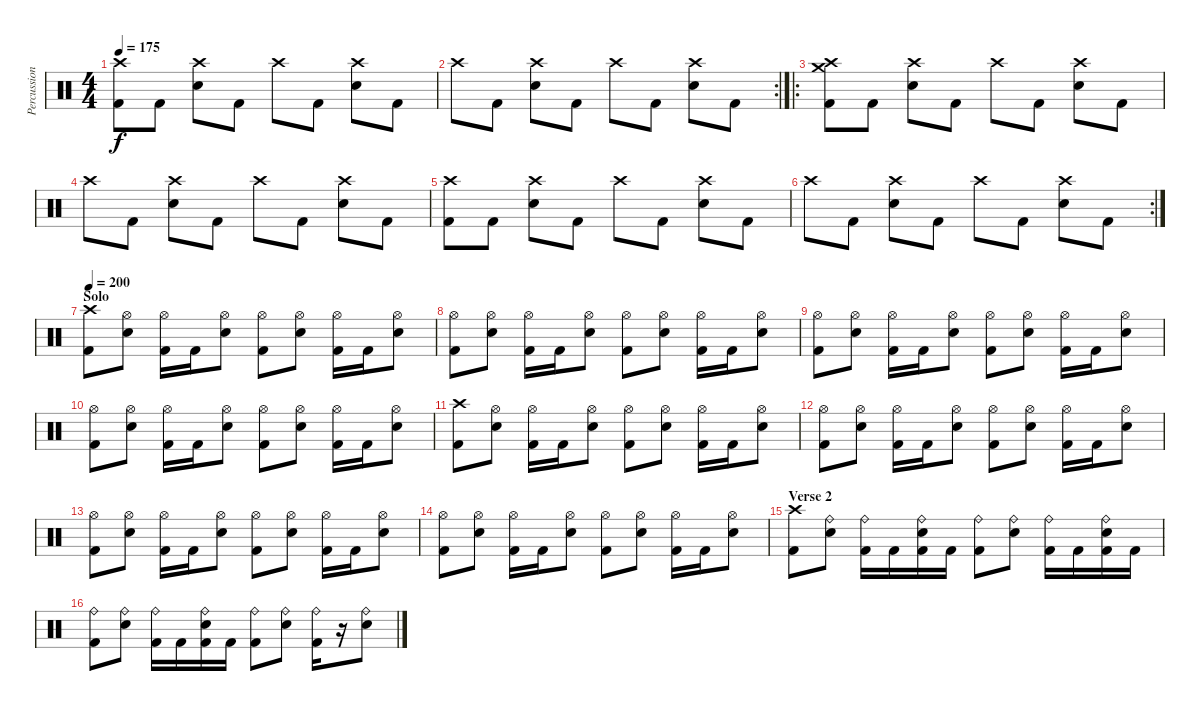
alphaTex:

\track ("Percussion" "Percussion") {instrument percussion}
\staff {score}
\articulation defaults
\ts (4 4)
\tempo 175
\clef neutral
\ks c
("Crash high (hit)" "Kick (hit) 2").8{dy f} "Kick (hit) 2".8 ("Crash high (hit)" "Electric Snare (hit)").8 "Kick (hit) 2".8 "Crash high (hit)".8 "Kick (hit) 2".8 ("Crash high (hit)" "Electric Snare (hit)").8 "Kick (hit) 2".8 |
\rc 2 "Crash high (hit)".8 "Kick (hit) 2".8
("Crash high (hit)" "Electric Snare (hit)").8 "Kick (hit) 2".8 "Crash high (hit)".8 "Kick (hit) 2".8 ("Crash high (hit)" "Electric Snare (hit)").8 "Kick (hit) 2".8 |
\ro
("Crash high (hit)" "Crash medium (hit)" "Kick (hit) 2").8 "Kick (hit) 2".8 ("Crash high (hit)" "Electric Snare (hit)").8 "Kick (hit) 2".8 "Crash high (hit)".8 "Kick (hit) 2".8 ("Crash high (hit)" "Electric Snare (hit)").8 "Kick (hit) 2".8 |
"Crash high (hit)".8 "Kick (hit) 2".8 ("Crash high (hit)" "Electric Snare (hit)").8 "Kick (hit) 2".8 "Crash high (hit)".8 "Kick (hit) 2".8 ("Crash high (hit)" "Electric Snare (hit)").8 "Kick (hit) 2".8 |
("Crash high (hit)" "Kick (hit) 2").8 "Kick (hit) 2".8 ("Crash high (hit)" "Electric Snare (hit)").8 "Kick (hit) 2".8 "Crash high (hit)".8 "Kick (hit) 2".8 ("Crash high (hit)" "Electric Snare (hit)").8 "Kick (hit) 2".8 |
\rc 2 "Crash high (hit)".8 "Kick (hit) 2".8
("Crash high (hit)" "Electric Snare (hit)").8 "Kick (hit) 2".8 "Crash high (hit)".8 "Kick (hit) 2".8 ("Crash high (hit)" "Electric Snare (hit)").8 "Kick (hit) 2".8 |
\section ("" "Solo")
\tempo 200
("Crash high (hit)" "Kick (hit) 2").8 ("Hi-Hat (open)" "Electric Snare (hit)").8 ("Hi-Hat (open)" "Kick (hit) 2").16 "Kick (hit) 2".16 ("Hi-Hat (open)" "Electric Snare (hit)").8 ("Hi-Hat (open)" "Kick (hit) 2").8 ("Hi-Hat (open)" "Electric Snare (hit)").8 ("Hi-Hat (open)" "Kick (hit) 2").16 "Kick (hit) 2".16 ("Hi-Hat (open)" "Electric Snare (hit)").8 |
("Hi-Hat (open)" "Kick (hit) 2").8 ("Hi-Hat (open)" "Electric Snare (hit)").8 ("Hi-Hat (open)" "Kick (hit) 2").16 "Kick (hit) 2".16 ("Hi-Hat (open)" "Electric Snare (hit)").8 ("Hi-Hat (open)" "Kick (hit) 2").8 ("Hi-Hat (open)" "Electric Snare (hit)").8 ("Hi-Hat (open)" "Kick (hit) 2").16 "Kick (hit) 2".16 ("Hi-Hat (open)" "Electric Snare (hit)").8 |
("Hi-Hat (open)" "Kick (hit) 2").8 ("Hi-Hat (open)" "Electric Snare (hit)").8 ("Hi-Hat (open)" "Kick (hit) 2").16 "Kick (hit) 2".16 ("Hi-Hat (open)" "Electric Snare (hit)").8 ("Hi-Hat (open)" "Kick (hit) 2").8 ("Hi-Hat (open)" "Electric Snare (hit)").8 ("Hi-Hat (open)" "Kick (hit) 2").16 "Kick (hit) 2".16 ("Hi-Hat (open)" "Electric Snare (hit)").8 |
("Hi-Hat (open)" "Kick (hit) 2").8 ("Hi-Hat (open)" "Electric Snare (hit)").8 ("Hi-Hat (open)" "Kick (hit) 2").16 "Kick (hit) 2".16 ("Hi-Hat (open)" "Electric Snare (hit)").8 ("Hi-Hat (open)" "Kick (hit) 2").8 ("Hi-Hat (open)" "Electric Snare (hit)").8 ("Hi-Hat (open)" "Kick (hit) 2").16 "Kick (hit) 2".16 ("Hi-Hat (open)" "Electric Snare (hit)").8 |
("Crash high (hit)" "Kick (hit) 2").8 ("Hi-Hat (open)" "Electric Snare (hit)").8 ("Hi-Hat (open)" "Kick (hit) 2").16 "Kick (hit) 2".16 ("Hi-Hat (open)" "Electric Snare (hit)").8 ("Hi-Hat (open)" "Kick (hit) 2").8 ("Hi-Hat (open)" "Electric Snare (hit)").8 ("Hi-Hat (open)" "Kick (hit) 2").16 "Kick (hit) 2".16 ("Hi-Hat (open)" "Electric Snare (hit)").8 |
("Hi-Hat (open)" "Kick (hit) 2").8 ("Hi-Hat (open)" "Electric Snare (hit)").8 ("Hi-Hat (open)" "Kick (hit) 2").16 "Kick (hit) 2".16 ("Hi-Hat (open)" "Electric Snare (hit)").8 ("Hi-Hat (open)" "Kick (hit) 2").8 ("Hi-Hat (open)" "Electric Snare (hit)").8 ("Hi-Hat (open)" "Kick (hit) 2").16 "Kick (hit) 2".16 ("Hi-Hat (open)" "Electric Snare (hit)").8 |
("Hi-Hat (open)" "Kick (hit) 2").8 ("Hi-Hat (open)" "Electric Snare (hit)").8 ("Hi-Hat (open)" "Kick (hit) 2").16 "Kick (hit) 2".16 ("Hi-Hat (open)" "Electric Snare (hit)").8 ("Hi-Hat (open)" "Kick (hit) 2").8 ("Hi-Hat (open)" "Electric Snare (hit)").8 ("Hi-Hat (open)" "Kick (hit) 2").16 "Kick (hit) 2".16 ("Hi-Hat (open)" "Electric Snare (hit)").8 |
("Hi-Hat (open)" "Kick (hit) 2").8 ("Hi-Hat (open)" "Electric Snare (hit)").8 ("Hi-Hat (open)" "Kick (hit) 2").16 "Kick (hit) 2".16 ("Hi-Hat (open)" "Electric Snare (hit)").8 ("Hi-Hat (open)" "Kick (hit) 2").8 ("Hi-Hat (open)" "Electric Snare (hit)").8 ("Hi-Hat (open)" "Kick (hit) 2").16 "Kick (hit) 2".16 ("Hi-Hat (open)" "Electric Snare (hit)").8 |
\section ("" "Verse 2")
("Crash high (hit)" "Kick (hit) 2").8 ("Ride (bell)" "Electric Snare (hit)").8 ("Ride (bell)" "Kick (hit) 2").16 "Kick (hit) 2".16 ("Ride (bell)" "Electric Snare (hit)" "Kick (hit) 2").16 "Kick (hit) 2".16 ("Ride (bell)" "Kick (hit) 2").8 ("Ride (bell)" "Electric Snare (hit)").8 ("Ride (bell)" "Kick (hit) 2").16 "Kick (hit) 2".16 ("Ride (bell)" "Electric Snare (hit)" "Kick (hit) 2").16 "Kick (hit) 2".16 |
("Ride (bell)" "Kick (hit) 2").8 ("Ride (bell)" "Electric Snare (hit)").8 ("Ride (bell)" "Kick (hit) 2").16 "Kick (hit) 2".16 ("Ride (bell)" "Electric Snare (hit)" "Kick (hit) 2").16 "Kick (hit) 2".16 ("Ride (bell)" "Kick (hit) 2").8 ("Ride (bell)" "Electric Snare (hit)").8 ("Ride (bell)" "Kick (hit) 2").16 r.16 ("Ride (bell)" "Electric Snare (hit)").8
